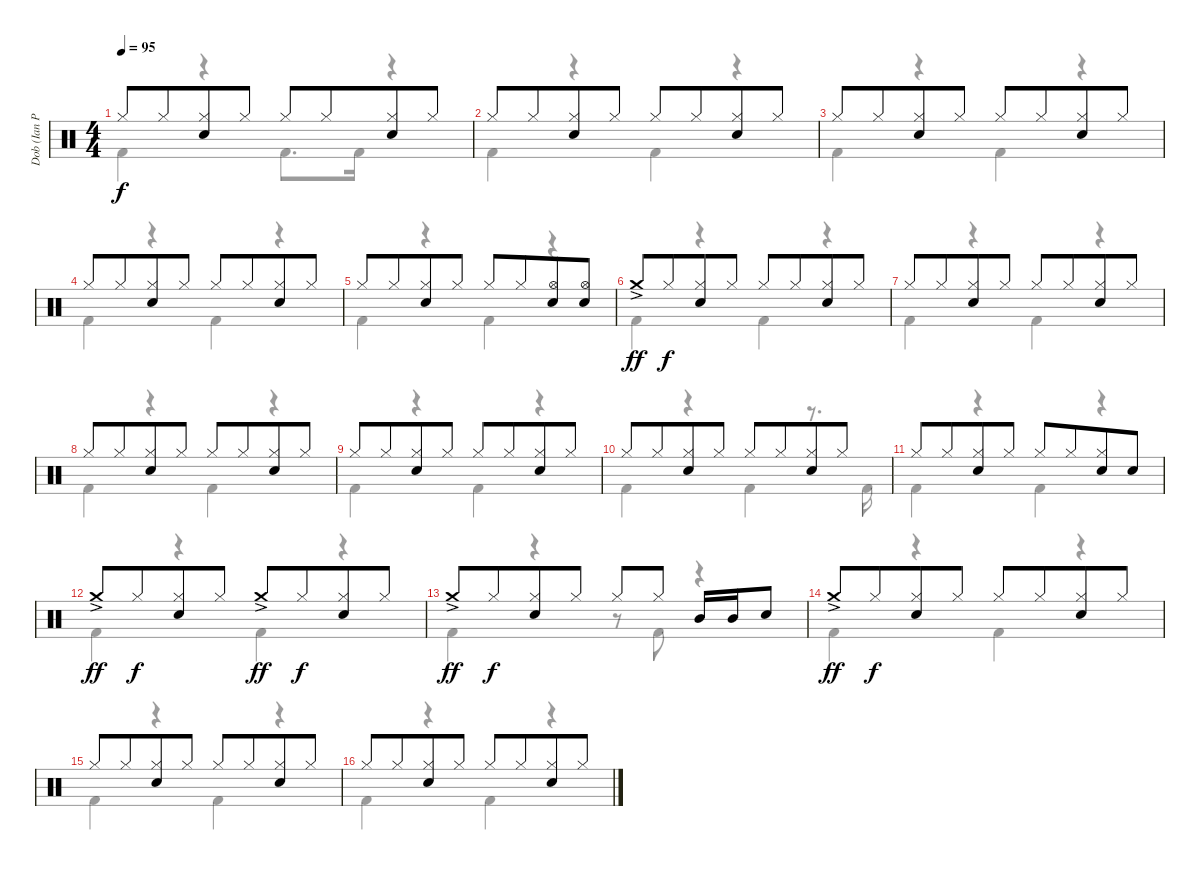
\track ("Dob (Ian Paice)" "Dob (Ian P") {instrument percussion}
\staff {score}
\articulation defaults
\voice
\ts (4 4)
\tempo 95
\clef neutral
\ks c "Hi-Hat (closed)".8{dy f} "Hi-Hat (closed)".8{beam merge}
("Hi-Hat (closed)" "Electric Snare (hit)").8 "Hi-Hat (closed)".8 "Hi-Hat (closed)".8 "Hi-Hat (closed)".8{beam merge} ("Hi-Hat (closed)" "Electric Snare (hit)").8 "Hi-Hat (closed)".8 |
"Hi-Hat (closed)".8 "Hi-Hat (closed)".8{beam merge} ("Hi-Hat (closed)" "Electric Snare (hit)").8 "Hi-Hat (closed)".8 "Hi-Hat (closed)".8 "Hi-Hat (closed)".8{beam merge} ("Hi-Hat (closed)" "Electric Snare (hit)").8 "Hi-Hat (closed)".8 |
"Hi-Hat (closed)".8 "Hi-Hat (closed)".8{beam merge} ("Hi-Hat (closed)" "Electric Snare (hit)").8 "Hi-Hat (closed)".8 "Hi-Hat (closed)".8 "Hi-Hat (closed)".8{beam merge} ("Hi-Hat (closed)" "Electric Snare (hit)").8 "Hi-Hat (closed)".8 |
"Hi-Hat (closed)".8 "Hi-Hat (closed)".8{beam merge} ("Hi-Hat (closed)" "Electric Snare (hit)").8 "Hi-Hat (closed)".8 "Hi-Hat (closed)".8 "Hi-Hat (closed)".8{beam merge} ("Hi-Hat (closed)" "Electric Snare (hit)").8 "Hi-Hat (closed)".8 |
"Hi-Hat (closed)".8 "Hi-Hat (closed)".8{beam merge} ("Hi-Hat (closed)" "Electric Snare (hit)").8 "Hi-Hat (closed)".8 "Hi-Hat (closed)".8 "Hi-Hat (closed)".8{beam merge} ("Hi-Hat (open)" "Electric Snare (hit)").8 ("Hi-Hat (open)" "Electric Snare (hit)").8 |
"Crash medium (hit)"{ac}.8{dy ff} "Hi-Hat (closed)".8{dy f beam merge} ("Hi-Hat (closed)" "Electric Snare (hit)").8 "Hi-Hat (closed)".8 "Hi-Hat (closed)".8 "Hi-Hat (closed)".8{beam merge} ("Hi-Hat (closed)" "Electric Snare (hit)").8 "Hi-Hat (closed)".8 |
"Hi-Hat (closed)".8 "Hi-Hat (closed)".8{beam merge} ("Hi-Hat (closed)" "Electric Snare (hit)").8 "Hi-Hat (closed)".8 "Hi-Hat (closed)".8 "Hi-Hat (closed)".8{beam merge} ("Hi-Hat (closed)" "Electric Snare (hit)").8 "Hi-Hat (closed)".8 |
"Hi-Hat (closed)".8 "Hi-Hat (closed)".8{beam merge} ("Hi-Hat (closed)" "Electric Snare (hit)").8 "Hi-Hat (closed)".8 "Hi-Hat (closed)".8 "Hi-Hat (closed)".8{beam merge} ("Hi-Hat (closed)" "Electric Snare (hit)").8 "Hi-Hat (closed)".8 |
"Hi-Hat (closed)".8 "Hi-Hat (closed)".8{beam merge} ("Hi-Hat (closed)" "Electric Snare (hit)").8 "Hi-Hat (closed)".8 "Hi-Hat (closed)".8 "Hi-Hat (closed)".8{beam merge} ("Hi-Hat (closed)" "Electric Snare (hit)").8 "Hi-Hat (closed)".8 |
"Hi-Hat (closed)".8 "Hi-Hat (closed)".8{beam merge} ("Hi-Hat (closed)" "Electric Snare (hit)").8 "Hi-Hat (closed)".8 "Hi-Hat (closed)".8 "Hi-Hat (closed)".8{beam merge} ("Hi-Hat (closed)" "Electric Snare (hit)").8 "Hi-Hat (closed)".8 |
"Hi-Hat (closed)".8 "Hi-Hat (closed)".8{beam merge} ("Hi-Hat (closed)" "Electric Snare (hit)").8 "Hi-Hat (closed)".8 "Hi-Hat (closed)".8 "Hi-Hat (closed)".8{beam merge} ("Hi-Hat (closed)" "Electric Snare (hit)").8 "Electric Snare (hit)".8 |
"Crash medium (hit)"{ac}.8{dy ff} "Hi-Hat (closed)".8{dy f beam merge} ("Hi-Hat (closed)" "Electric Snare (hit)").8 "Hi-Hat (closed)".8 "Crash medium (hit)"{ac}.8{dy ff} "Hi-Hat (closed)".8{dy f beam merge} ("Hi-Hat (closed)" "Electric Snare (hit)").8 "Hi-Hat (closed)".8 |
"Crash medium (hit)"{ac}.8{dy ff} "Hi-Hat (closed)".8{dy f beam merge} ("Hi-Hat (closed)" "Electric Snare (hit)").8 "Hi-Hat (closed)".8 "Hi-Hat (closed)".8 "Hi-Hat (closed)".8 "Mid Tom (hit)".16 "Mid Tom (hit)".16 "Electric Snare (hit)".8 |
"Crash medium (hit)"{ac}.8{dy ff} "Hi-Hat (closed)".8{dy f beam merge} ("Hi-Hat (closed)" "Electric Snare (hit)").8 "Hi-Hat (closed)".8 "Hi-Hat (closed)".8 "Hi-Hat (closed)".8{beam merge} ("Hi-Hat (closed)" "Electric Snare (hit)").8 "Hi-Hat (closed)".8 |
"Hi-Hat (closed)".8 "Hi-Hat (closed)".8{beam merge} ("Hi-Hat (closed)" "Electric Snare (hit)").8 "Hi-Hat (closed)".8 "Hi-Hat (closed)".8 "Hi-Hat (closed)".8{beam merge} ("Hi-Hat (closed)" "Electric Snare (hit)").8 "Hi-Hat (closed)".8 |
"Hi-Hat (closed)".8 "Hi-Hat (closed)".8{beam merge} ("Hi-Hat (closed)" "Electric Snare (hit)").8 "Hi-Hat (closed)".8 "Hi-Hat (closed)".8 "Hi-Hat (closed)".8{beam merge} ("Hi-Hat (closed)" "Electric Snare (hit)").8 "Hi-Hat (closed)".8
\voice
\clef neutral
\ottava regular
\simile none
\ks c "Kick (hit) 2".4{dy f}
r.4 "Kick (hit) 2".8{d} "Kick (hit) 2".16 r.4 |
"Kick (hit) 2".4 r.4 "Kick (hit) 2".4 r.4 |
"Kick (hit) 2".4 r.4 "Kick (hit) 2".4 r.4 |
"Kick (hit) 2".4 r.4 "Kick (hit) 2".4 r.4 |
"Kick (hit) 2".4 r.4 "Kick (hit) 2".4 r.4 |
"Kick (hit) 2".4 r.4 "Kick (hit) 2".4 r.4 |
"Kick (hit) 2".4 r.4 "Kick (hit) 2".4 r.4 |
"Kick (hit) 2".4 r.4 "Kick (hit) 2".4 r.4 |
"Kick (hit) 2".4 r.4 "Kick (hit) 2".4 r.4 |
"Kick (hit) 2".4 r.4 "Kick (hit) 2".4 r.8{d} "Kick (hit) 2".16 |
"Kick (hit) 2".4 r.4 "Kick (hit) 2".4 r.4 |
"Kick (hit) 2".4 r.4 "Kick (hit) 2".4 r.4 |
"Kick (hit) 2".4 r.4 r.8 "Kick (hit) 2".8 r.4 |
"Kick (hit) 2".4 r.4 "Kick (hit) 2".4 r.4 |
"Kick (hit) 2".4 r.4 "Kick (hit) 2".4 r.4 |
"Kick (hit) 2".4 r.4 "Kick (hit) 2".4 r.4
